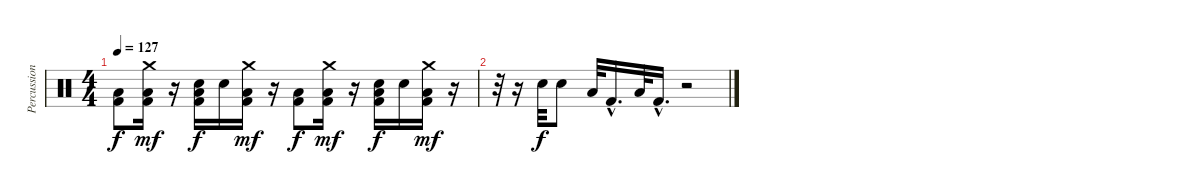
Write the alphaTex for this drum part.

\track ("Percussions" "Percussion") {instrument percussion}
\staff {score}
\articulation defaults
\ts (4 4)
\tempo 127
\clef neutral
\ks c
("Low Floor Tom (hit)" "Kick (hit) 2").8{dy f} ("Low Floor Tom (hit)" "Kick (hit) 2" "Crash medium (hit)").16{dy mf} r.16 ("Low Floor Tom (hit)" "Kick (hit) 2" "Electric Snare (hit)").16{dy f} "Electric Snare (hit)".16 ("Low Floor Tom (hit)" "Kick (hit) 2" "Crash medium (hit)").16{dy mf} r.16 ("Low Floor Tom (hit)" "Kick (hit) 2").8{dy f} ("Low Floor Tom (hit)" "Kick (hit) 2" "Crash medium (hit)").16{dy mf} r.16 ("Low Floor Tom (hit)" "Kick (hit) 2" "Electric Snare (hit)").16{dy f} "Electric Snare (hit)".16 ("Low Floor Tom (hit)" "Kick (hit) 2" "Crash medium (hit)").16{dy mf} r.16 |
r.32 r.16 "Electric Snare (hit)".32{dy f} "Electric Snare (hit)".8 "Low Floor Tom (hit)".32 "Kick (hit) 2"{hac}.16{d} "Low Floor Tom (hit)".32 "Kick (hit) 2"{hac}.16{d} r.2
